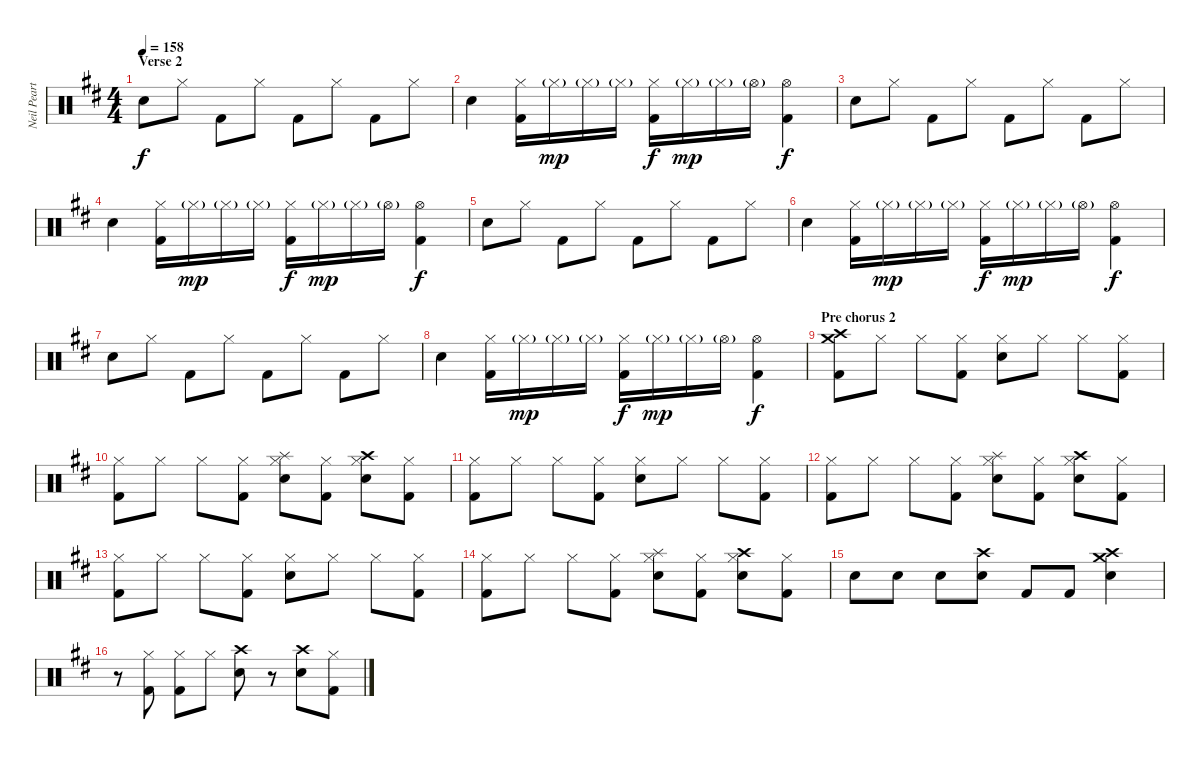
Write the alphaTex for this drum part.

\track ("Neil Peart (drums)" "Neil Peart") {instrument percussion}
\staff {score}
\articulation defaults
\ts (4 4)
\section ("" "Verse 2")
\tempo 158
\clef neutral
\ks bminor "Electric Snare (hit)".8{dy f} "Hi-Hat (closed)".8 "Kick (hit) 2".8 "Hi-Hat (closed)".8 "Kick (hit) 2".8 "Hi-Hat (closed)".8 "Kick (hit) 2".8 "Hi-Hat (closed)".8
|
"Electric Snare (hit)".4 ("Hi-Hat (closed)" "Kick (hit) 2").16 "Hi-Hat (closed)"{g}.16{dy mp} "Hi-Hat (closed)"{g}.16 "Hi-Hat (closed)"{g}.16 ("Hi-Hat (closed)" "Kick (hit) 2").16{dy f} "Hi-Hat (closed)"{g}.16{dy mp} "Hi-Hat (closed)"{g}.16 "Hi-Hat (open)"{g}.16 ("Hi-Hat (open)" "Kick (hit) 2").4{dy f} |
"Electric Snare (hit)".8 "Hi-Hat (closed)".8 "Kick (hit) 2".8 "Hi-Hat (closed)".8 "Kick (hit) 2".8 "Hi-Hat (closed)".8 "Kick (hit) 2".8 "Hi-Hat (closed)".8 |
"Electric Snare (hit)".4 ("Hi-Hat (closed)" "Kick (hit) 2").16 "Hi-Hat (closed)"{g}.16{dy mp} "Hi-Hat (closed)"{g}.16 "Hi-Hat (closed)"{g}.16 ("Hi-Hat (closed)" "Kick (hit) 2").16{dy f} "Hi-Hat (closed)"{g}.16{dy mp} "Hi-Hat (closed)"{g}.16 "Hi-Hat (open)"{g}.16 ("Hi-Hat (open)" "Kick (hit) 2").4{dy f} |
"Electric Snare (hit)".8 "Hi-Hat (closed)".8 "Kick (hit) 2".8 "Hi-Hat (closed)".8 "Kick (hit) 2".8 "Hi-Hat (closed)".8 "Kick (hit) 2".8 "Hi-Hat (closed)".8 |
"Electric Snare (hit)".4 ("Hi-Hat (closed)" "Kick (hit) 2").16 "Hi-Hat (closed)"{g}.16{dy mp} "Hi-Hat (closed)"{g}.16 "Hi-Hat (closed)"{g}.16 ("Hi-Hat (closed)" "Kick (hit) 2").16{dy f} "Hi-Hat (closed)"{g}.16{dy mp} "Hi-Hat (closed)"{g}.16 "Hi-Hat (open)"{g}.16 ("Hi-Hat (open)" "Kick (hit) 2").4{dy f} |
"Electric Snare (hit)".8 "Hi-Hat (closed)".8 "Kick (hit) 2".8 "Hi-Hat (closed)".8 "Kick (hit) 2".8 "Hi-Hat (closed)".8 "Kick (hit) 2".8 "Hi-Hat (closed)".8 |
"Electric Snare (hit)".4 ("Hi-Hat (closed)" "Kick (hit) 2").16 "Hi-Hat (closed)"{g}.16{dy mp} "Hi-Hat (closed)"{g}.16 "Hi-Hat (closed)"{g}.16 ("Hi-Hat (closed)" "Kick (hit) 2").16{dy f} "Hi-Hat (closed)"{g}.16{dy mp} "Hi-Hat (closed)"{g}.16 "Hi-Hat (open)"{g}.16 ("Hi-Hat (open)" "Kick (hit) 2").4{dy f} |
\section ("" "Pre chorus 2")
("Crash high (hit)" "Crash medium (hit)" "Kick (hit) 2").8 "Hi-Hat (closed)".8 "Hi-Hat (closed)".8 ("Hi-Hat (closed)" "Kick (hit) 2").8 ("Hi-Hat (closed)" "Electric Snare (hit)").8 "Hi-Hat (closed)".8 "Hi-Hat (closed)".8 ("Hi-Hat (closed)" "Kick (hit) 2").8 |
("Hi-Hat (closed)" "Kick (hit) 2").8 "Hi-Hat (closed)".8 "Hi-Hat (closed)".8 ("Hi-Hat (closed)" "Kick (hit) 2").8 ("Splash (hit)" "Hi-Hat (closed)" "Electric Snare (hit)").8 ("Hi-Hat (closed)" "Kick (hit) 2").8 ("Crash high (hit)" "Hi-Hat (closed)" "Electric Snare (hit)").8 ("Hi-Hat (closed)" "Kick (hit) 2").8 |
("Hi-Hat (closed)" "Kick (hit) 2").8 "Hi-Hat (closed)".8 "Hi-Hat (closed)".8 ("Hi-Hat (closed)" "Kick (hit) 2").8 ("Hi-Hat (closed)" "Electric Snare (hit)").8 "Hi-Hat (closed)".8 "Hi-Hat (closed)".8 ("Hi-Hat (closed)" "Kick (hit) 2").8 |
("Hi-Hat (closed)" "Kick (hit) 2").8 "Hi-Hat (closed)".8 "Hi-Hat (closed)".8 ("Hi-Hat (closed)" "Kick (hit) 2").8 ("Splash (hit)" "Hi-Hat (closed)" "Electric Snare (hit)").8 ("Hi-Hat (closed)" "Kick (hit) 2").8 ("Crash high (hit)" "Hi-Hat (closed)" "Electric Snare (hit)").8 ("Hi-Hat (closed)" "Kick (hit) 2").8 |
("Hi-Hat (closed)" "Kick (hit) 2").8 "Hi-Hat (closed)".8 "Hi-Hat (closed)".8 ("Hi-Hat (closed)" "Kick (hit) 2").8 ("Hi-Hat (closed)" "Electric Snare (hit)").8 "Hi-Hat (closed)".8 "Hi-Hat (closed)".8 ("Hi-Hat (closed)" "Kick (hit) 2").8 |
("Hi-Hat (closed)" "Kick (hit) 2").8 "Hi-Hat (closed)".8 "Hi-Hat (closed)".8 ("Hi-Hat (closed)" "Kick (hit) 2").8 ("Splash (hit)" "Hi-Hat (closed)" "Electric Snare (hit)").8 ("Hi-Hat (closed)" "Kick (hit) 2").8 ("Crash high (hit)" "Hi-Hat (closed)" "Electric Snare (hit)").8 ("Hi-Hat (closed)" "Kick (hit) 2").8 |
"Electric Snare (hit)".8 "Electric Snare (hit)".8 "Electric Snare (hit)".8 ("Crash high (hit)" "Electric Snare (hit)").8 "Kick (hit) 2".8 "Kick (hit) 2".8 ("Crash medium (hit)" "Crash high (hit)" "Electric Snare (hit)").4 |
r.8 ("Hi-Hat (closed)" "Kick (hit) 2").8 ("Hi-Hat (closed)" "Kick (hit) 2").8 "Hi-Hat (closed)".8 ("Crash high (hit)" "Electric Snare (hit)").8 r.8 ("Crash high (hit)" "Electric Snare (hit)").8 ("Hi-Hat (closed)" "Kick (hit) 2").8
